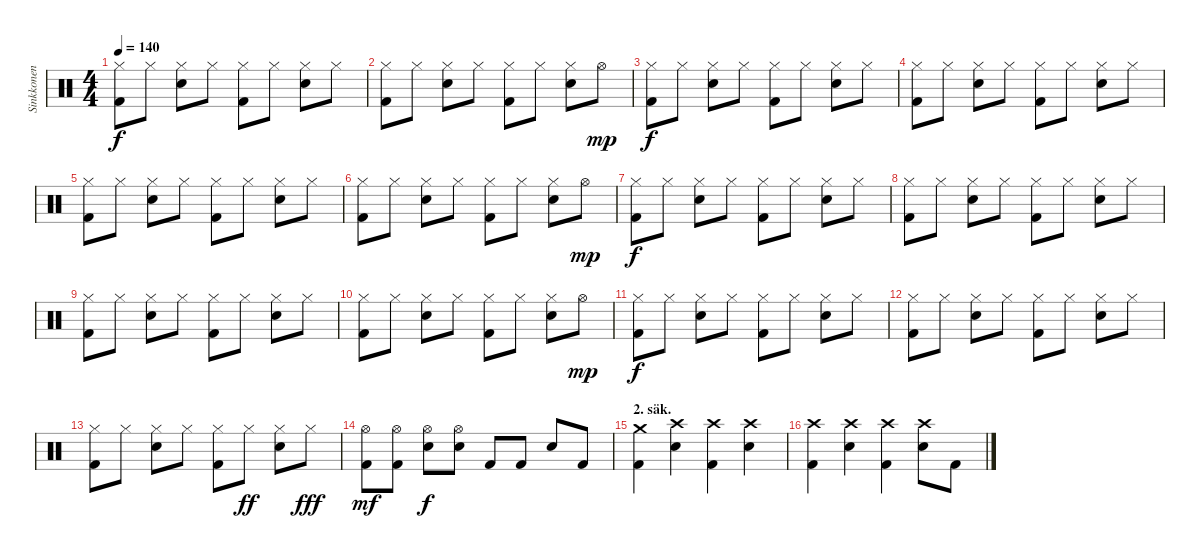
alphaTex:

\track ("Sinkkonen" "Sinkkonen") {instrument percussion}
\staff {score}
\articulation defaults
\ts (4 4)
\tempo 140
\clef neutral
\ks c
("Kick (hit) 2" "Hi-Hat (closed)").8{dy f} "Hi-Hat (closed)".8 ("Hi-Hat (closed)" "Snare (hit) 2").8 "Hi-Hat (closed)".8 ("Kick (hit) 2" "Hi-Hat (closed)").8 "Hi-Hat (closed)".8 ("Hi-Hat (closed)" "Snare (hit) 2").8 "Hi-Hat (closed)".8 |
("Kick (hit) 2" "Hi-Hat (closed)").8 "Hi-Hat (closed)".8 ("Hi-Hat (closed)" "Snare (hit) 2").8 "Hi-Hat (closed)".8 ("Kick (hit) 2" "Hi-Hat (closed)").8 "Hi-Hat (closed)".8 ("Hi-Hat (closed)" "Snare (hit) 2").8 "Hi-Hat (open)".8{dy mp} |
("Kick (hit) 2" "Hi-Hat (closed)").8{dy f} "Hi-Hat (closed)".8 ("Hi-Hat (closed)" "Snare (hit) 2").8 "Hi-Hat (closed)".8 ("Kick (hit) 2" "Hi-Hat (closed)").8 "Hi-Hat (closed)".8 ("Hi-Hat (closed)" "Snare (hit) 2").8 "Hi-Hat (closed)".8 |
("Kick (hit) 2" "Hi-Hat (closed)").8 "Hi-Hat (closed)".8 ("Hi-Hat (closed)" "Snare (hit) 2").8 "Hi-Hat (closed)".8 ("Kick (hit) 2" "Hi-Hat (closed)").8 "Hi-Hat (closed)".8 ("Hi-Hat (closed)" "Snare (hit) 2").8 "Hi-Hat (closed)".8 |
("Kick (hit) 2" "Hi-Hat (closed)").8 "Hi-Hat (closed)".8 ("Hi-Hat (closed)" "Snare (hit) 2").8 "Hi-Hat (closed)".8 ("Kick (hit) 2" "Hi-Hat (closed)").8 "Hi-Hat (closed)".8 ("Hi-Hat (closed)" "Snare (hit) 2").8 "Hi-Hat (closed)".8 |
("Kick (hit) 2" "Hi-Hat (closed)").8 "Hi-Hat (closed)".8 ("Hi-Hat (closed)" "Snare (hit) 2").8 "Hi-Hat (closed)".8 ("Kick (hit) 2" "Hi-Hat (closed)").8 "Hi-Hat (closed)".8 ("Hi-Hat (closed)" "Snare (hit) 2").8 "Hi-Hat (open)".8{dy mp} |
("Kick (hit) 2" "Hi-Hat (closed)").8{dy f} "Hi-Hat (closed)".8 ("Hi-Hat (closed)" "Snare (hit) 2").8 "Hi-Hat (closed)".8 ("Kick (hit) 2" "Hi-Hat (closed)").8 "Hi-Hat (closed)".8 ("Hi-Hat (closed)" "Snare (hit) 2").8 "Hi-Hat (closed)".8 |
("Kick (hit) 2" "Hi-Hat (closed)").8 "Hi-Hat (closed)".8 ("Hi-Hat (closed)" "Snare (hit) 2").8 "Hi-Hat (closed)".8 ("Kick (hit) 2" "Hi-Hat (closed)").8 "Hi-Hat (closed)".8 ("Hi-Hat (closed)" "Snare (hit) 2").8 "Hi-Hat (closed)".8 |
("Kick (hit) 2" "Hi-Hat (closed)").8 "Hi-Hat (closed)".8 ("Hi-Hat (closed)" "Snare (hit) 2").8 "Hi-Hat (closed)".8 ("Kick (hit) 2" "Hi-Hat (closed)").8 "Hi-Hat (closed)".8 ("Hi-Hat (closed)" "Snare (hit) 2").8 "Hi-Hat (closed)".8 |
("Kick (hit) 2" "Hi-Hat (closed)").8 "Hi-Hat (closed)".8 ("Hi-Hat (closed)" "Snare (hit) 2").8 "Hi-Hat (closed)".8 ("Kick (hit) 2" "Hi-Hat (closed)").8 "Hi-Hat (closed)".8 ("Hi-Hat (closed)" "Snare (hit) 2").8 "Hi-Hat (open)".8{dy mp} |
("Kick (hit) 2" "Hi-Hat (closed)").8{dy f} "Hi-Hat (closed)".8 ("Hi-Hat (closed)" "Snare (hit) 2").8 "Hi-Hat (closed)".8 ("Kick (hit) 2" "Hi-Hat (closed)").8 "Hi-Hat (closed)".8 ("Hi-Hat (closed)" "Snare (hit) 2").8 "Hi-Hat (closed)".8 |
("Kick (hit) 2" "Hi-Hat (closed)").8 "Hi-Hat (closed)".8 ("Hi-Hat (closed)" "Snare (hit) 2").8 "Hi-Hat (closed)".8 ("Kick (hit) 2" "Hi-Hat (closed)").8 "Hi-Hat (closed)".8 ("Hi-Hat (closed)" "Snare (hit) 2").8 "Hi-Hat (closed)".8 |
("Kick (hit) 2" "Hi-Hat (closed)").8 "Hi-Hat (closed)".8 ("Hi-Hat (closed)" "Snare (hit) 2").8 "Hi-Hat (closed)".8 ("Kick (hit) 2" "Hi-Hat (closed)").8 "Hi-Hat (closed)".8{dy ff} ("Hi-Hat (closed)" "Snare (hit) 2").8 "Hi-Hat (closed)".8{dy fff} |
("Kick (hit) 2" "Hi-Hat (open)").8{dy mf} ("Kick (hit) 2" "Hi-Hat (open)").8 ("Hi-Hat (open)" "Snare (hit) 2").8{dy f} ("Hi-Hat (open)" "Snare (hit) 2").8 "Kick (hit) 2".8 "Kick (hit) 2".8 "Snare (hit) 2".8 "Kick (hit) 2".8 |
\section ("" "2. säk.")
("Kick (hit) 2" "Crash medium (hit)").4 ("Crash high (hit)" "Snare (hit) 2").4 ("Kick (hit) 2" "Crash high (hit)").4 ("Crash high (hit)" "Snare (hit) 2").4 |
("Kick (hit) 2" "Crash high (hit)").4 ("Crash high (hit)" "Snare (hit) 2").4 ("Kick (hit) 2" "Crash high (hit)").4 ("Crash high (hit)" "Snare (hit) 2").8 "Kick (hit) 2".8
